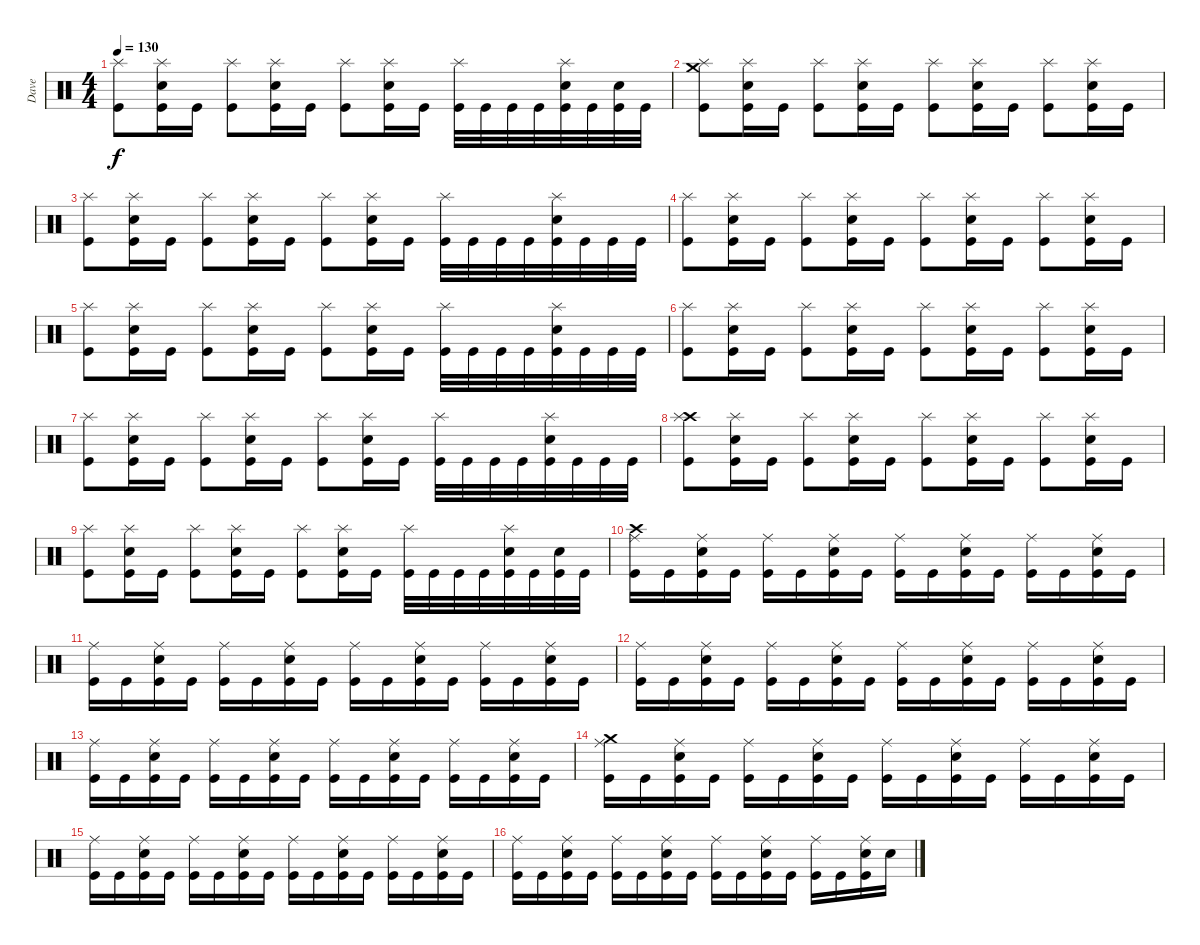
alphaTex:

\track ("Dave" "Dave") {instrument percussion}
\staff {score}
\articulation defaults
\ts (4 4)
\tempo 130
\clef neutral
\ks c
("Splash (hit)" "Kick (hit)").8{dy f} ("Splash (hit)" "Electric Snare (hit)" "Kick (hit)").16 "Kick (hit)".16 ("Splash (hit)" "Kick (hit)").8 ("Splash (hit)" "Electric Snare (hit)" "Kick (hit)").16 "Kick (hit)".16 ("Splash (hit)" "Kick (hit)").8 ("Splash (hit)" "Electric Snare (hit)" "Kick (hit)").16 "Kick (hit)".16 ("Splash (hit)" "Kick (hit)").32 "Kick (hit)".32 "Kick (hit)".32 "Kick (hit)".32 ("Splash (hit)" "Electric Snare (hit)" "Kick (hit)").32 "Kick (hit)".32 ("Electric Snare (hit)" "Kick (hit)").32 "Kick (hit)".32 |
("Crash medium (hit)" "Splash (hit)" "Kick (hit)").8 ("Splash (hit)" "Electric Snare (hit)" "Kick (hit)").16 "Kick (hit)".16 ("Splash (hit)" "Kick (hit)").8 ("Splash (hit)" "Electric Snare (hit)" "Kick (hit)").16 "Kick (hit)".16 ("Splash (hit)" "Kick (hit)").8 ("Splash (hit)" "Electric Snare (hit)" "Kick (hit)").16 "Kick (hit)".16 ("Splash (hit)" "Kick (hit)").8 ("Splash (hit)" "Electric Snare (hit)" "Kick (hit)").16 "Kick (hit)".16 |
("Splash (hit)" "Kick (hit)").8 ("Splash (hit)" "Electric Snare (hit)" "Kick (hit)").16 "Kick (hit)".16 ("Splash (hit)" "Kick (hit)").8 ("Splash (hit)" "Electric Snare (hit)" "Kick (hit)").16 "Kick (hit)".16 ("Splash (hit)" "Kick (hit)").8 ("Splash (hit)" "Electric Snare (hit)" "Kick (hit)").16 "Kick (hit)".16 ("Splash (hit)" "Kick (hit)").32 "Kick (hit)".32 "Kick (hit)".32 "Kick (hit)".32 ("Splash (hit)" "Electric Snare (hit)" "Kick (hit)").32 "Kick (hit)".32 "Kick (hit)".32 "Kick (hit)".32 |
("Splash (hit)" "Kick (hit)").8 ("Splash (hit)" "Electric Snare (hit)" "Kick (hit)").16 "Kick (hit)".16 ("Splash (hit)" "Kick (hit)").8 ("Splash (hit)" "Electric Snare (hit)" "Kick (hit)").16 "Kick (hit)".16 ("Splash (hit)" "Kick (hit)").8 ("Splash (hit)" "Electric Snare (hit)" "Kick (hit)").16 "Kick (hit)".16 ("Splash (hit)" "Kick (hit)").8 ("Splash (hit)" "Electric Snare (hit)" "Kick (hit)").16 "Kick (hit)".16 |
("Splash (hit)" "Kick (hit)").8 ("Splash (hit)" "Electric Snare (hit)" "Kick (hit)").16 "Kick (hit)".16 ("Splash (hit)" "Kick (hit)").8 ("Splash (hit)" "Electric Snare (hit)" "Kick (hit)").16 "Kick (hit)".16 ("Splash (hit)" "Kick (hit)").8 ("Splash (hit)" "Electric Snare (hit)" "Kick (hit)").16 "Kick (hit)".16 ("Splash (hit)" "Kick (hit)").32 "Kick (hit)".32 "Kick (hit)".32 "Kick (hit)".32 ("Splash (hit)" "Electric Snare (hit)" "Kick (hit)").32 "Kick (hit)".32 "Kick (hit)".32 "Kick (hit)".32 |
("Splash (hit)" "Kick (hit)").8 ("Splash (hit)" "Electric Snare (hit)" "Kick (hit)").16 "Kick (hit)".16 ("Splash (hit)" "Kick (hit)").8 ("Splash (hit)" "Electric Snare (hit)" "Kick (hit)").16 "Kick (hit)".16 ("Splash (hit)" "Kick (hit)").8 ("Splash (hit)" "Electric Snare (hit)" "Kick (hit)").16 "Kick (hit)".16 ("Splash (hit)" "Kick (hit)").8 ("Splash (hit)" "Electric Snare (hit)" "Kick (hit)").16 "Kick (hit)".16 |
("Splash (hit)" "Kick (hit)").8 ("Splash (hit)" "Electric Snare (hit)" "Kick (hit)").16 "Kick (hit)".16 ("Splash (hit)" "Kick (hit)").8 ("Splash (hit)" "Electric Snare (hit)" "Kick (hit)").16 "Kick (hit)".16 ("Splash (hit)" "Kick (hit)").8 ("Splash (hit)" "Electric Snare (hit)" "Kick (hit)").16 "Kick (hit)".16 ("Splash (hit)" "Kick (hit)").32 "Kick (hit)".32 "Kick (hit)".32 "Kick (hit)".32 ("Splash (hit)" "Electric Snare (hit)" "Kick (hit)").32 "Kick (hit)".32 "Kick (hit)".32 "Kick (hit)".32 |
("Crash high (hit)" "Splash (hit)" "Kick (hit)").8 ("Splash (hit)" "Electric Snare (hit)" "Kick (hit)").16 "Kick (hit)".16 ("Splash (hit)" "Kick (hit)").8 ("Splash (hit)" "Electric Snare (hit)" "Kick (hit)").16 "Kick (hit)".16 ("Splash (hit)" "Kick (hit)").8 ("Splash (hit)" "Electric Snare (hit)" "Kick (hit)").16 "Kick (hit)".16 ("Splash (hit)" "Kick (hit)").8 ("Splash (hit)" "Electric Snare (hit)" "Kick (hit)").16 "Kick (hit)".16 |
("Splash (hit)" "Kick (hit)").8 ("Splash (hit)" "Electric Snare (hit)" "Kick (hit)").16 "Kick (hit)".16 ("Splash (hit)" "Kick (hit)").8 ("Splash (hit)" "Electric Snare (hit)" "Kick (hit)").16 "Kick (hit)".16 ("Splash (hit)" "Kick (hit)").8 ("Splash (hit)" "Electric Snare (hit)" "Kick (hit)").16 "Kick (hit)".16 ("Splash (hit)" "Kick (hit)").32 "Kick (hit)".32 "Kick (hit)".32 "Kick (hit)".32 ("Splash (hit)" "Electric Snare (hit)" "Kick (hit)").32 "Kick (hit)".32 ("Electric Snare (hit)" "Kick (hit)").32 "Kick (hit)".32 |
\section ("" "")
("Crash high (hit)" "Ride (middle)" "Kick (hit)").16 "Kick (hit)".16 ("Ride (middle)" "Electric Snare (hit)" "Kick (hit)").16 "Kick (hit)".16 ("Ride (middle)" "Kick (hit)").16 "Kick (hit)".16 ("Ride (middle)" "Electric Snare (hit)" "Kick (hit)").16 "Kick (hit)".16 ("Ride (middle)" "Kick (hit)").16 "Kick (hit)".16 ("Ride (middle)" "Electric Snare (hit)" "Kick (hit)").16 "Kick (hit)".16 ("Ride (middle)" "Kick (hit)").16 "Kick (hit)".16 ("Ride (middle)" "Electric Snare (hit)" "Kick (hit)").16 "Kick (hit)".16 |
("Ride (middle)" "Kick (hit)").16 "Kick (hit)".16 ("Ride (middle)" "Electric Snare (hit)" "Kick (hit)").16 "Kick (hit)".16 ("Ride (middle)" "Kick (hit)").16 "Kick (hit)".16 ("Ride (middle)" "Electric Snare (hit)" "Kick (hit)").16 "Kick (hit)".16 ("Ride (middle)" "Kick (hit)").16 "Kick (hit)".16 ("Ride (middle)" "Electric Snare (hit)" "Kick (hit)").16 "Kick (hit)".16 ("Ride (middle)" "Kick (hit)").16 "Kick (hit)".16 ("Ride (middle)" "Electric Snare (hit)" "Kick (hit)").16 "Kick (hit)".16 |
("Ride (middle)" "Kick (hit)").16 "Kick (hit)".16 ("Ride (middle)" "Electric Snare (hit)" "Kick (hit)").16 "Kick (hit)".16 ("Ride (middle)" "Kick (hit)").16 "Kick (hit)".16 ("Ride (middle)" "Electric Snare (hit)" "Kick (hit)").16 "Kick (hit)".16 ("Ride (middle)" "Kick (hit)").16 "Kick (hit)".16 ("Ride (middle)" "Electric Snare (hit)" "Kick (hit)").16 "Kick (hit)".16 ("Ride (middle)" "Kick (hit)").16 "Kick (hit)".16 ("Ride (middle)" "Electric Snare (hit)" "Kick (hit)").16 "Kick (hit)".16 |
("Ride (middle)" "Kick (hit)").16 "Kick (hit)".16 ("Ride (middle)" "Electric Snare (hit)" "Kick (hit)").16 "Kick (hit)".16 ("Ride (middle)" "Kick (hit)").16 "Kick (hit)".16 ("Ride (middle)" "Electric Snare (hit)" "Kick (hit)").16 "Kick (hit)".16 ("Ride (middle)" "Kick (hit)").16 "Kick (hit)".16 ("Ride (middle)" "Electric Snare (hit)" "Kick (hit)").16 "Kick (hit)".16 ("Ride (middle)" "Kick (hit)").16 "Kick (hit)".16 ("Ride (middle)" "Electric Snare (hit)" "Kick (hit)").16 "Kick (hit)".16 |
("Crash medium (hit)" "Ride (middle)" "Kick (hit)").16 "Kick (hit)".16 ("Ride (middle)" "Electric Snare (hit)" "Kick (hit)").16 "Kick (hit)".16 ("Ride (middle)" "Kick (hit)").16 "Kick (hit)".16 ("Ride (middle)" "Electric Snare (hit)" "Kick (hit)").16 "Kick (hit)".16 ("Ride (middle)" "Kick (hit)").16 "Kick (hit)".16 ("Ride (middle)" "Electric Snare (hit)" "Kick (hit)").16 "Kick (hit)".16 ("Ride (middle)" "Kick (hit)").16 "Kick (hit)".16 ("Ride (middle)" "Electric Snare (hit)" "Kick (hit)").16 "Kick (hit)".16 |
("Ride (middle)" "Kick (hit)").16 "Kick (hit)".16 ("Ride (middle)" "Electric Snare (hit)" "Kick (hit)").16 "Kick (hit)".16 ("Ride (middle)" "Kick (hit)").16 "Kick (hit)".16 ("Ride (middle)" "Electric Snare (hit)" "Kick (hit)").16 "Kick (hit)".16 ("Ride (middle)" "Kick (hit)").16 "Kick (hit)".16 ("Ride (middle)" "Electric Snare (hit)" "Kick (hit)").16 "Kick (hit)".16 ("Ride (middle)" "Kick (hit)").16 "Kick (hit)".16 ("Ride (middle)" "Electric Snare (hit)" "Kick (hit)").16 "Kick (hit)".16 |
("Ride (middle)" "Kick (hit)").16 "Kick (hit)".16 ("Ride (middle)" "Electric Snare (hit)" "Kick (hit)").16 "Kick (hit)".16 ("Ride (middle)" "Kick (hit)").16 "Kick (hit)".16 ("Ride (middle)" "Electric Snare (hit)" "Kick (hit)").16 "Kick (hit)".16 ("Ride (middle)" "Kick (hit)").16 "Kick (hit)".16 ("Ride (middle)" "Electric Snare (hit)" "Kick (hit)").16 "Kick (hit)".16 ("Ride (middle)" "Kick (hit)").16 "Kick (hit)".16 ("Ride (middle)" "Electric Snare (hit)" "Kick (hit)").16 "Snare (hit)".16
